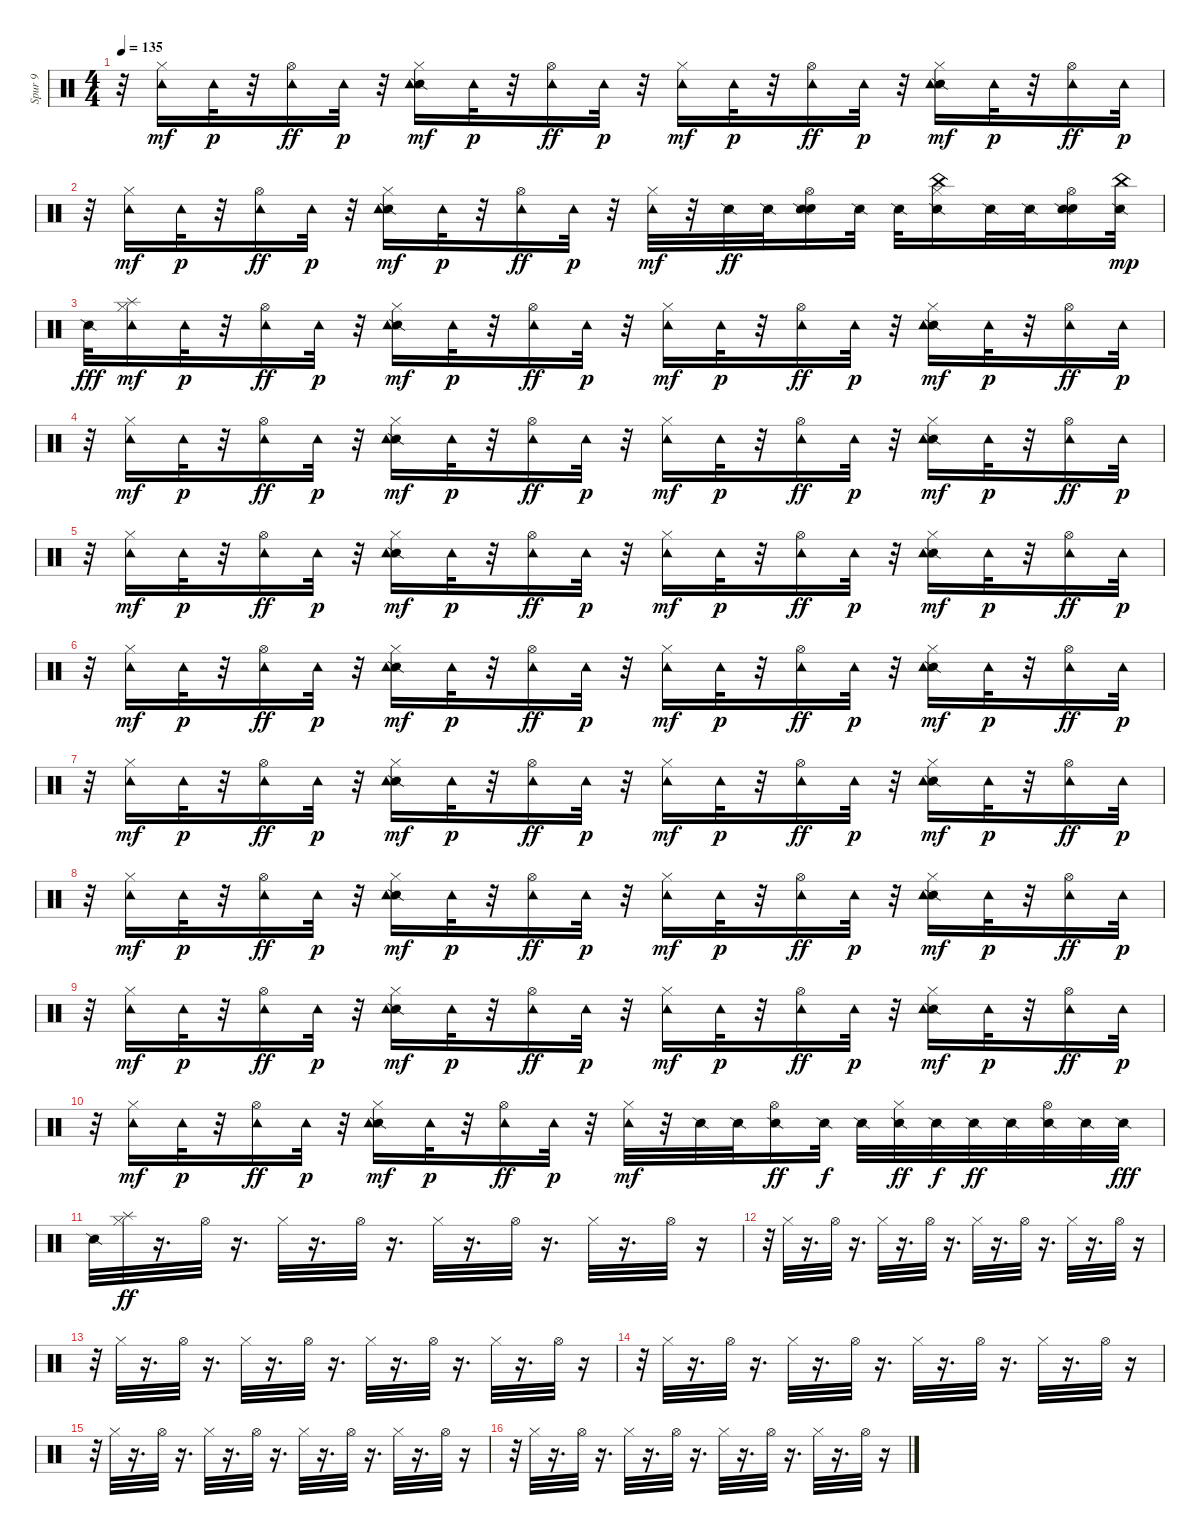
\track ("Spur 9" "Spur 9") {instrument percussion}
\staff {score}
\articulation defaults
\ts (4 4)
\tempo 135
\clef neutral
\ks c
r.32{dy p} ("Hi-Hat (closed)" "Tambourine (hit)").16{dy mf} "Tambourine (hit)".32{dy p} r.32 ("Hi-Hat (open)" "Tambourine (hit)").16{dy ff} "Tambourine (hit)".32{dy p} r.32 ("Snare (side stick) 2" "Hi-Hat (closed)" "Tambourine (hit)").16{dy mf} "Tambourine (hit)".32{dy p} r.32 ("Hi-Hat (open)" "Tambourine (hit)").16{dy ff} "Tambourine (hit)".32{dy p} r.32 ("Hi-Hat (closed)" "Tambourine (hit)").16{dy mf} "Tambourine (hit)".32{dy p} r.32 ("Hi-Hat (open)" "Tambourine (hit)").16{dy ff} "Tambourine (hit)".32{dy p} r.32 ("Snare (side stick) 2" "Hi-Hat (closed)" "Tambourine (hit)").16{dy mf} "Tambourine (hit)".32{dy p} r.32 ("Hi-Hat (open)" "Tambourine (hit)").16{dy ff} "Tambourine (hit)".32{dy p} |
r.32 ("Hi-Hat (closed)" "Tambourine (hit)").16{dy mf} "Tambourine (hit)".32{dy p} r.32 ("Hi-Hat (open)" "Tambourine (hit)").16{dy ff} "Tambourine (hit)".32{dy p} r.32 ("Snare (side stick) 2" "Hi-Hat (closed)" "Tambourine (hit)").16{dy mf} "Tambourine (hit)".32{dy p} r.32 ("Hi-Hat (open)" "Tambourine (hit)").16{dy ff} "Tambourine (hit)".32{dy p} r.32 ("Hi-Hat (closed)" "Tambourine (hit)").32{dy mf} r.32 "Snare (side stick) 2".32{dy ff} "Snare (side stick) 2".32 ("Snare (hit)" "Snare (side stick) 2" "Hi-Hat (open)").16 "Snare (side stick) 2".32 "Snare (side stick) 2".32 ("Snare (side stick) 2" "Hi-Hat (closed)" "China (hit)").16 "Snare (side stick) 2".32 "Snare (side stick) 2".32 ("Snare (hit)" "Snare (side stick) 2" "Hi-Hat (open)").16 ("Snare (side stick) 2" "China (hit)").32{dy mp} |
"Snare (side stick) 2".32{dy fff} ("Splash (hit)" "Hi-Hat (closed)" "Tambourine (hit)").16{dy mf} "Tambourine (hit)".32{dy p} r.32 ("Hi-Hat (open)" "Tambourine (hit)").16{dy ff} "Tambourine (hit)".32{dy p} r.32 ("Snare (side stick) 2" "Hi-Hat (closed)" "Tambourine (hit)").16{dy mf} "Tambourine (hit)".32{dy p} r.32 ("Hi-Hat (open)" "Tambourine (hit)").16{dy ff} "Tambourine (hit)".32{dy p} r.32 ("Hi-Hat (closed)" "Tambourine (hit)").16{dy mf} "Tambourine (hit)".32{dy p} r.32 ("Hi-Hat (open)" "Tambourine (hit)").16{dy ff} "Tambourine (hit)".32{dy p} r.32 ("Snare (side stick) 2" "Hi-Hat (closed)" "Tambourine (hit)").16{dy mf} "Tambourine (hit)".32{dy p} r.32 ("Hi-Hat (open)" "Tambourine (hit)").16{dy ff} "Tambourine (hit)".32{dy p} |
r.32 ("Hi-Hat (closed)" "Tambourine (hit)").16{dy mf} "Tambourine (hit)".32{dy p} r.32 ("Hi-Hat (open)" "Tambourine (hit)").16{dy ff} "Tambourine (hit)".32{dy p} r.32 ("Snare (side stick) 2" "Hi-Hat (closed)" "Tambourine (hit)").16{dy mf} "Tambourine (hit)".32{dy p} r.32 ("Hi-Hat (open)" "Tambourine (hit)").16{dy ff} "Tambourine (hit)".32{dy p} r.32 ("Hi-Hat (closed)" "Tambourine (hit)").16{dy mf} "Tambourine (hit)".32{dy p} r.32 ("Hi-Hat (open)" "Tambourine (hit)").16{dy ff} "Tambourine (hit)".32{dy p} r.32 ("Snare (side stick) 2" "Hi-Hat (closed)" "Tambourine (hit)").16{dy mf} "Tambourine (hit)".32{dy p} r.32 ("Hi-Hat (open)" "Tambourine (hit)").16{dy ff} "Tambourine (hit)".32{dy p} |
r.32 ("Hi-Hat (closed)" "Tambourine (hit)").16{dy mf} "Tambourine (hit)".32{dy p} r.32 ("Hi-Hat (open)" "Tambourine (hit)").16{dy ff} "Tambourine (hit)".32{dy p} r.32 ("Snare (side stick) 2" "Hi-Hat (closed)" "Tambourine (hit)").16{dy mf} "Tambourine (hit)".32{dy p} r.32 ("Hi-Hat (open)" "Tambourine (hit)").16{dy ff} "Tambourine (hit)".32{dy p} r.32 ("Hi-Hat (closed)" "Tambourine (hit)").16{dy mf} "Tambourine (hit)".32{dy p} r.32 ("Hi-Hat (open)" "Tambourine (hit)").16{dy ff} "Tambourine (hit)".32{dy p} r.32 ("Snare (side stick) 2" "Hi-Hat (closed)" "Tambourine (hit)").16{dy mf} "Tambourine (hit)".32{dy p} r.32 ("Hi-Hat (open)" "Tambourine (hit)").16{dy ff} "Tambourine (hit)".32{dy p} |
r.32 ("Hi-Hat (closed)" "Tambourine (hit)").16{dy mf} "Tambourine (hit)".32{dy p} r.32 ("Hi-Hat (open)" "Tambourine (hit)").16{dy ff} "Tambourine (hit)".32{dy p} r.32 ("Snare (side stick) 2" "Hi-Hat (closed)" "Tambourine (hit)").16{dy mf} "Tambourine (hit)".32{dy p} r.32 ("Hi-Hat (open)" "Tambourine (hit)").16{dy ff} "Tambourine (hit)".32{dy p} r.32 ("Hi-Hat (closed)" "Tambourine (hit)").16{dy mf} "Tambourine (hit)".32{dy p} r.32 ("Hi-Hat (open)" "Tambourine (hit)").16{dy ff} "Tambourine (hit)".32{dy p} r.32 ("Snare (side stick) 2" "Hi-Hat (closed)" "Tambourine (hit)").16{dy mf} "Tambourine (hit)".32{dy p} r.32 ("Hi-Hat (open)" "Tambourine (hit)").16{dy ff} "Tambourine (hit)".32{dy p} |
r.32 ("Hi-Hat (closed)" "Tambourine (hit)").16{dy mf} "Tambourine (hit)".32{dy p} r.32 ("Hi-Hat (open)" "Tambourine (hit)").16{dy ff} "Tambourine (hit)".32{dy p} r.32 ("Snare (side stick) 2" "Hi-Hat (closed)" "Tambourine (hit)").16{dy mf} "Tambourine (hit)".32{dy p} r.32 ("Hi-Hat (open)" "Tambourine (hit)").16{dy ff} "Tambourine (hit)".32{dy p} r.32 ("Hi-Hat (closed)" "Tambourine (hit)").16{dy mf} "Tambourine (hit)".32{dy p} r.32 ("Hi-Hat (open)" "Tambourine (hit)").16{dy ff} "Tambourine (hit)".32{dy p} r.32 ("Snare (side stick) 2" "Hi-Hat (closed)" "Tambourine (hit)").16{dy mf} "Tambourine (hit)".32{dy p} r.32 ("Hi-Hat (open)" "Tambourine (hit)").16{dy ff} "Tambourine (hit)".32{dy p} |
r.32 ("Hi-Hat (closed)" "Tambourine (hit)").16{dy mf} "Tambourine (hit)".32{dy p} r.32 ("Hi-Hat (open)" "Tambourine (hit)").16{dy ff} "Tambourine (hit)".32{dy p} r.32 ("Snare (side stick) 2" "Hi-Hat (closed)" "Tambourine (hit)").16{dy mf} "Tambourine (hit)".32{dy p} r.32 ("Hi-Hat (open)" "Tambourine (hit)").16{dy ff} "Tambourine (hit)".32{dy p} r.32 ("Hi-Hat (closed)" "Tambourine (hit)").16{dy mf} "Tambourine (hit)".32{dy p} r.32 ("Hi-Hat (open)" "Tambourine (hit)").16{dy ff} "Tambourine (hit)".32{dy p} r.32 ("Snare (side stick) 2" "Hi-Hat (closed)" "Tambourine (hit)").16{dy mf} "Tambourine (hit)".32{dy p} r.32 ("Hi-Hat (open)" "Tambourine (hit)").16{dy ff} "Tambourine (hit)".32{dy p} |
r.32 ("Hi-Hat (closed)" "Tambourine (hit)").16{dy mf} "Tambourine (hit)".32{dy p} r.32 ("Hi-Hat (open)" "Tambourine (hit)").16{dy ff} "Tambourine (hit)".32{dy p} r.32 ("Snare (side stick) 2" "Hi-Hat (closed)" "Tambourine (hit)").16{dy mf} "Tambourine (hit)".32{dy p} r.32 ("Hi-Hat (open)" "Tambourine (hit)").16{dy ff} "Tambourine (hit)".32{dy p} r.32 ("Hi-Hat (closed)" "Tambourine (hit)").16{dy mf} "Tambourine (hit)".32{dy p} r.32 ("Hi-Hat (open)" "Tambourine (hit)").16{dy ff} "Tambourine (hit)".32{dy p} r.32 ("Snare (side stick) 2" "Hi-Hat (closed)" "Tambourine (hit)").16{dy mf} "Tambourine (hit)".32{dy p} r.32 ("Hi-Hat (open)" "Tambourine (hit)").16{dy ff} "Tambourine (hit)".32{dy p} |
r.32 ("Hi-Hat (closed)" "Tambourine (hit)").16{dy mf} "Tambourine (hit)".32{dy p} r.32 ("Hi-Hat (open)" "Tambourine (hit)").16{dy ff} "Tambourine (hit)".32{dy p} r.32 ("Snare (side stick) 2" "Hi-Hat (closed)" "Tambourine (hit)").16{dy mf} "Tambourine (hit)".32{dy p} r.32 ("Hi-Hat (open)" "Tambourine (hit)").16{dy ff} "Tambourine (hit)".32{dy p} r.32 ("Hi-Hat (closed)" "Tambourine (hit)").32{dy mf} r.32 "Snare (side stick) 2".32 "Snare (side stick) 2".32 ("Snare (side stick) 2" "Hi-Hat (open)").16{dy ff} "Snare (side stick) 2".32{dy f} "Snare (side stick) 2".32 ("Snare (side stick) 2" "Hi-Hat (closed)").32{dy ff} "Snare (side stick) 2".32{dy f} "Snare (side stick) 2".32{dy ff} "Snare (side stick) 2".32 ("Snare (side stick) 2" "Hi-Hat (open)").32 "Snare (side stick) 2".32 "Snare (side stick) 2".32{dy fff} |
"Snare (side stick) 2".32 ("Splash (hit)" "Hi-Hat (closed)").32{dy ff} r.16{d} "Hi-Hat (open)".32 r.16{d} "Hi-Hat (closed)".32 r.16{d} "Hi-Hat (open)".32 r.16{d} "Hi-Hat (closed)".32 r.16{d} "Hi-Hat (open)".32 r.16{d} "Hi-Hat (closed)".32 r.16{d} "Hi-Hat (open)".32 r.16 |
r.32 "Hi-Hat (closed)".32 r.16{d} "Hi-Hat (open)".32 r.16{d} "Hi-Hat (closed)".32 r.16{d} "Hi-Hat (open)".32 r.16{d} "Hi-Hat (closed)".32 r.16{d} "Hi-Hat (open)".32 r.16{d} "Hi-Hat (closed)".32 r.16{d} "Hi-Hat (open)".32 r.16 |
r.32 "Hi-Hat (closed)".32 r.16{d} "Hi-Hat (open)".32 r.16{d} "Hi-Hat (closed)".32 r.16{d} "Hi-Hat (open)".32 r.16{d} "Hi-Hat (closed)".32 r.16{d} "Hi-Hat (open)".32 r.16{d} "Hi-Hat (closed)".32 r.16{d} "Hi-Hat (open)".32 r.16 |
r.32 "Hi-Hat (closed)".32 r.16{d} "Hi-Hat (open)".32 r.16{d} "Hi-Hat (closed)".32 r.16{d} "Hi-Hat (open)".32 r.16{d} "Hi-Hat (closed)".32 r.16{d} "Hi-Hat (open)".32 r.16{d} "Hi-Hat (closed)".32 r.16{d} "Hi-Hat (open)".32 r.16 |
r.32 "Hi-Hat (closed)".32 r.16{d} "Hi-Hat (open)".32 r.16{d} "Hi-Hat (closed)".32 r.16{d} "Hi-Hat (open)".32 r.16{d} "Hi-Hat (closed)".32 r.16{d} "Hi-Hat (open)".32 r.16{d} "Hi-Hat (closed)".32 r.16{d} "Hi-Hat (open)".32 r.16 |
r.32 "Hi-Hat (closed)".32 r.16{d} "Hi-Hat (open)".32 r.16{d} "Hi-Hat (closed)".32 r.16{d} "Hi-Hat (open)".32 r.16{d} "Hi-Hat (closed)".32 r.16{d} "Hi-Hat (open)".32 r.16{d} "Hi-Hat (closed)".32 r.16{d} "Hi-Hat (open)".32 r.16
